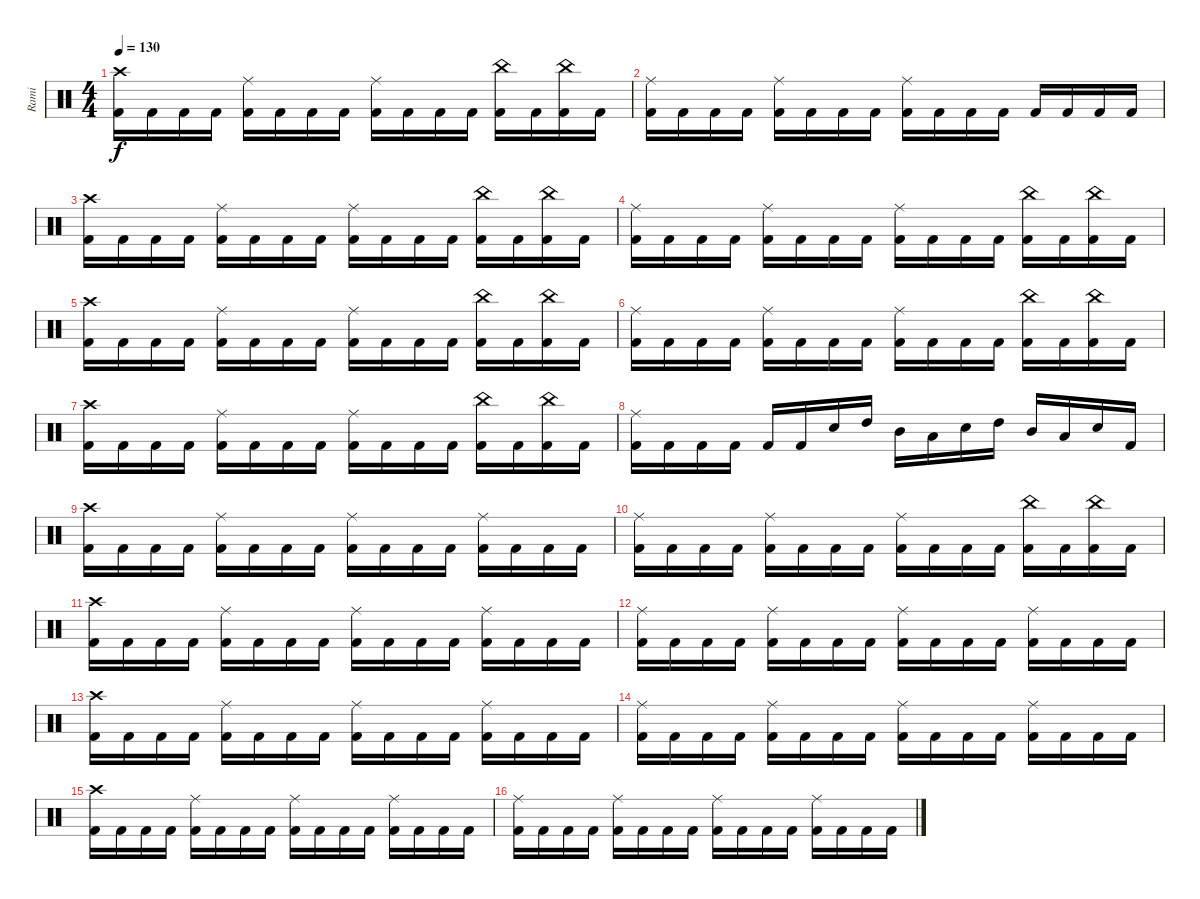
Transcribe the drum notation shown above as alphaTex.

\track ("Rami" "Rami") {instrument percussion}
\staff {score}
\articulation defaults
\ts (4 4)
\tempo 130
\clef neutral
\ks c
("Crash high (hit)" "Kick (hit) 2").16{dy f} "Kick (hit) 2".16 "Kick (hit) 2".16 "Kick (hit) 2".16 ("Ride (middle)" "Kick (hit) 2").16 "Kick (hit) 2".16 "Kick (hit) 2".16 "Kick (hit) 2".16 ("Ride (middle)" "Kick (hit) 2").16 "Kick (hit) 2".16 "Kick (hit) 2".16 "Kick (hit) 2".16 ("China (hit)" "Kick (hit) 2").16 "Kick (hit) 2".16 ("China (hit)" "Kick (hit) 2").16 "Kick (hit) 2".16 |
("Ride (middle)" "Kick (hit) 2").16 "Kick (hit) 2".16 "Kick (hit) 2".16 "Kick (hit) 2".16 ("Ride (middle)" "Kick (hit) 2").16 "Kick (hit) 2".16 "Kick (hit) 2".16 "Kick (hit) 2".16 ("Ride (middle)" "Kick (hit) 2").16 "Kick (hit) 2".16 "Kick (hit) 2".16 "Kick (hit) 2".16 "Kick (hit) 2".16 "Kick (hit) 2".16 "Kick (hit) 2".16 "Kick (hit) 2".16 |
("Crash high (hit)" "Kick (hit) 2").16 "Kick (hit) 2".16 "Kick (hit) 2".16 "Kick (hit) 2".16 ("Ride (middle)" "Kick (hit) 2").16 "Kick (hit) 2".16 "Kick (hit) 2".16 "Kick (hit) 2".16 ("Ride (middle)" "Kick (hit) 2").16 "Kick (hit) 2".16 "Kick (hit) 2".16 "Kick (hit) 2".16 ("China (hit)" "Kick (hit) 2").16 "Kick (hit) 2".16 ("China (hit)" "Kick (hit) 2").16 "Kick (hit) 2".16 |
("Ride (middle)" "Kick (hit) 2").16 "Kick (hit) 2".16 "Kick (hit) 2".16 "Kick (hit) 2".16 ("Ride (middle)" "Kick (hit) 2").16 "Kick (hit) 2".16 "Kick (hit) 2".16 "Kick (hit) 2".16 ("Ride (middle)" "Kick (hit) 2").16 "Kick (hit) 2".16 "Kick (hit) 2".16 "Kick (hit) 2".16 ("China (hit)" "Kick (hit) 2").16 "Kick (hit) 2".16 ("China (hit)" "Kick (hit) 2").16 "Kick (hit) 2".16 |
("Crash high (hit)" "Kick (hit) 2").16 "Kick (hit) 2".16 "Kick (hit) 2".16 "Kick (hit) 2".16 ("Ride (middle)" "Kick (hit) 2").16 "Kick (hit) 2".16 "Kick (hit) 2".16 "Kick (hit) 2".16 ("Ride (middle)" "Kick (hit) 2").16 "Kick (hit) 2".16 "Kick (hit) 2".16 "Kick (hit) 2".16 ("China (hit)" "Kick (hit) 2").16 "Kick (hit) 2".16 ("China (hit)" "Kick (hit) 2").16 "Kick (hit) 2".16 |
("Ride (middle)" "Kick (hit) 2").16 "Kick (hit) 2".16 "Kick (hit) 2".16 "Kick (hit) 2".16 ("Ride (middle)" "Kick (hit) 2").16 "Kick (hit) 2".16 "Kick (hit) 2".16 "Kick (hit) 2".16 ("Ride (middle)" "Kick (hit) 2").16 "Kick (hit) 2".16 "Kick (hit) 2".16 "Kick (hit) 2".16 ("China (hit)" "Kick (hit) 2").16 "Kick (hit) 2".16 ("China (hit)" "Kick (hit) 2").16 "Kick (hit) 2".16 |
("Crash high (hit)" "Kick (hit) 2").16 "Kick (hit) 2".16 "Kick (hit) 2".16 "Kick (hit) 2".16 ("Ride (middle)" "Kick (hit) 2").16 "Kick (hit) 2".16 "Kick (hit) 2".16 "Kick (hit) 2".16 ("Ride (middle)" "Kick (hit) 2").16 "Kick (hit) 2".16 "Kick (hit) 2".16 "Kick (hit) 2".16 ("China (hit)" "Kick (hit) 2").16 "Kick (hit) 2".16 ("China (hit)" "Kick (hit) 2").16 "Kick (hit) 2".16 |
("Ride (middle)" "Kick (hit) 2").16 "Kick (hit) 2".16 "Kick (hit) 2".16 "Kick (hit) 2".16 "Kick (hit) 2".16 "Kick (hit) 2".16 "Electric Snare (hit)".16 "High Tom (hit)".16 "Mid Tom (hit)".16 "Low Tom (hit)".16 "Electric Snare (hit)".16 "High Tom (hit)".16 "Mid Tom (hit)".16 "Low Tom (hit)".16 "Electric Snare (hit)".16 "Kick (hit) 2".16 |
("Crash high (hit)" "Kick (hit) 2").16 "Kick (hit) 2".16 "Kick (hit) 2".16 "Kick (hit) 2".16 ("Ride (middle)" "Kick (hit) 2").16 "Kick (hit) 2".16 "Kick (hit) 2".16 "Kick (hit) 2".16 ("Ride (middle)" "Kick (hit) 2").16 "Kick (hit) 2".16 "Kick (hit) 2".16 "Kick (hit) 2".16 ("Ride (middle)" "Kick (hit) 2").16 "Kick (hit) 2".16 "Kick (hit) 2".16 "Kick (hit) 2".16 |
("Ride (middle)" "Kick (hit) 2").16 "Kick (hit) 2".16 "Kick (hit) 2".16 "Kick (hit) 2".16 ("Ride (middle)" "Kick (hit) 2").16 "Kick (hit) 2".16 "Kick (hit) 2".16 "Kick (hit) 2".16 ("Ride (middle)" "Kick (hit) 2").16 "Kick (hit) 2".16 "Kick (hit) 2".16 "Kick (hit) 2".16 ("China (hit)" "Kick (hit) 2").16 "Kick (hit) 2".16 ("China (hit)" "Kick (hit) 2").16 "Kick (hit) 2".16 |
("Crash high (hit)" "Kick (hit) 2").16 "Kick (hit) 2".16 "Kick (hit) 2".16 "Kick (hit) 2".16 ("Ride (middle)" "Kick (hit) 2").16 "Kick (hit) 2".16 "Kick (hit) 2".16 "Kick (hit) 2".16 ("Ride (middle)" "Kick (hit) 2").16 "Kick (hit) 2".16 "Kick (hit) 2".16 "Kick (hit) 2".16 ("Ride (middle)" "Kick (hit) 2").16 "Kick (hit) 2".16 "Kick (hit) 2".16 "Kick (hit) 2".16 |
("Ride (middle)" "Kick (hit) 2").16 "Kick (hit) 2".16 "Kick (hit) 2".16 "Kick (hit) 2".16 ("Ride (middle)" "Kick (hit) 2").16 "Kick (hit) 2".16 "Kick (hit) 2".16 "Kick (hit) 2".16 ("Ride (middle)" "Kick (hit) 2").16 "Kick (hit) 2".16 "Kick (hit) 2".16 "Kick (hit) 2".16 ("Ride (middle)" "Kick (hit) 2").16 "Kick (hit) 2".16 "Kick (hit) 2".16 "Kick (hit) 2".16 |
("Crash high (hit)" "Kick (hit) 2").16 "Kick (hit) 2".16 "Kick (hit) 2".16 "Kick (hit) 2".16 ("Ride (middle)" "Kick (hit) 2").16 "Kick (hit) 2".16 "Kick (hit) 2".16 "Kick (hit) 2".16 ("Ride (middle)" "Kick (hit) 2").16 "Kick (hit) 2".16 "Kick (hit) 2".16 "Kick (hit) 2".16 ("Ride (middle)" "Kick (hit) 2").16 "Kick (hit) 2".16 "Kick (hit) 2".16 "Kick (hit) 2".16 |
("Ride (middle)" "Kick (hit) 2").16 "Kick (hit) 2".16 "Kick (hit) 2".16 "Kick (hit) 2".16 ("Ride (middle)" "Kick (hit) 2").16 "Kick (hit) 2".16 "Kick (hit) 2".16 "Kick (hit) 2".16 ("Ride (middle)" "Kick (hit) 2").16 "Kick (hit) 2".16 "Kick (hit) 2".16 "Kick (hit) 2".16 ("Ride (middle)" "Kick (hit) 2").16 "Kick (hit) 2".16 "Kick (hit) 2".16 "Kick (hit) 2".16 |
("Crash high (hit)" "Kick (hit) 2").16 "Kick (hit) 2".16 "Kick (hit) 2".16 "Kick (hit) 2".16 ("Ride (middle)" "Kick (hit) 2").16 "Kick (hit) 2".16 "Kick (hit) 2".16 "Kick (hit) 2".16 ("Ride (middle)" "Kick (hit) 2").16 "Kick (hit) 2".16 "Kick (hit) 2".16 "Kick (hit) 2".16 ("Ride (middle)" "Kick (hit) 2").16 "Kick (hit) 2".16 "Kick (hit) 2".16 "Kick (hit) 2".16 |
("Ride (middle)" "Kick (hit) 2").16 "Kick (hit) 2".16 "Kick (hit) 2".16 "Kick (hit) 2".16 ("Ride (middle)" "Kick (hit) 2").16 "Kick (hit) 2".16 "Kick (hit) 2".16 "Kick (hit) 2".16 ("Ride (middle)" "Kick (hit) 2").16 "Kick (hit) 2".16 "Kick (hit) 2".16 "Kick (hit) 2".16 ("Ride (middle)" "Kick (hit) 2").16 "Kick (hit) 2".16 "Kick (hit) 2".16 "Kick (hit) 2".16
